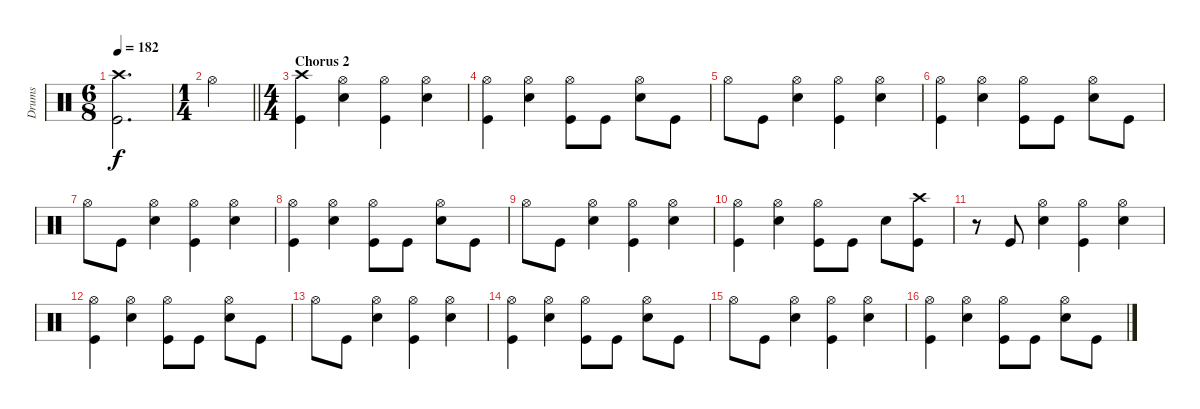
\track ("Drums" "Drums") {instrument percussion}
\staff {score}
\articulation defaults
\ts (6 8)
\tempo 182
\clef neutral
\ks c
("Crash high (hit)" "Kick (hit)").2{d dy f} |
\ts (1 4)
\barLineRight lightlight "Hi-Hat (open)".4
|
\ts (4 4)
\section ("" "Chorus 2")
("Crash high (hit)" "Kick (hit)").4 ("Hi-Hat (open)" "Electric Snare (hit)").4 ("Hi-Hat (open)" "Kick (hit)").4 ("Hi-Hat (open)" "Electric Snare (hit)").4 |
("Hi-Hat (open)" "Kick (hit)").4 ("Hi-Hat (open)" "Electric Snare (hit)").4 ("Hi-Hat (open)" "Kick (hit)").8 "Kick (hit)".8 ("Hi-Hat (open)" "Electric Snare (hit)").8 "Kick (hit)".8 |
"Hi-Hat (open)".8 "Kick (hit)".8 ("Hi-Hat (open)" "Electric Snare (hit)").4 ("Kick (hit)" "Hi-Hat (open)").4 ("Hi-Hat (open)" "Electric Snare (hit)").4 |
("Hi-Hat (open)" "Kick (hit)").4 ("Hi-Hat (open)" "Electric Snare (hit)").4 ("Hi-Hat (open)" "Kick (hit)").8 "Kick (hit)".8 ("Hi-Hat (open)" "Electric Snare (hit)").8 "Kick (hit)".8 |
"Hi-Hat (open)".8 "Kick (hit)".8 ("Hi-Hat (open)" "Electric Snare (hit)").4 ("Kick (hit)" "Hi-Hat (open)").4 ("Hi-Hat (open)" "Electric Snare (hit)").4 |
("Hi-Hat (open)" "Kick (hit)").4 ("Hi-Hat (open)" "Electric Snare (hit)").4 ("Hi-Hat (open)" "Kick (hit)").8 "Kick (hit)".8 ("Hi-Hat (open)" "Electric Snare (hit)").8 "Kick (hit)".8 |
"Hi-Hat (open)".8 "Kick (hit)".8 ("Hi-Hat (open)" "Electric Snare (hit)").4 ("Kick (hit)" "Hi-Hat (open)").4 ("Hi-Hat (open)" "Electric Snare (hit)").4 |
("Hi-Hat (open)" "Kick (hit)").4 ("Hi-Hat (open)" "Electric Snare (hit)").4 ("Hi-Hat (open)" "Kick (hit)").8 "Kick (hit)".8 "Electric Snare (hit)".8 ("Crash high (hit)" "Kick (hit)").8 |
r.8 "Kick (hit)".8 ("Hi-Hat (open)" "Electric Snare (hit)").4 ("Kick (hit)" "Hi-Hat (open)").4 ("Hi-Hat (open)" "Electric Snare (hit)").4 |
("Hi-Hat (open)" "Kick (hit)").4 ("Hi-Hat (open)" "Electric Snare (hit)").4 ("Hi-Hat (open)" "Kick (hit)").8 "Kick (hit)".8 ("Hi-Hat (open)" "Electric Snare (hit)").8 "Kick (hit)".8 |
"Hi-Hat (open)".8 "Kick (hit)".8 ("Hi-Hat (open)" "Electric Snare (hit)").4 ("Kick (hit)" "Hi-Hat (open)").4 ("Hi-Hat (open)" "Electric Snare (hit)").4 |
("Hi-Hat (open)" "Kick (hit)").4 ("Hi-Hat (open)" "Electric Snare (hit)").4 ("Hi-Hat (open)" "Kick (hit)").8 "Kick (hit)".8 ("Hi-Hat (open)" "Electric Snare (hit)").8 "Kick (hit)".8 |
"Hi-Hat (open)".8 "Kick (hit)".8 ("Hi-Hat (open)" "Electric Snare (hit)").4 ("Kick (hit)" "Hi-Hat (open)").4 ("Hi-Hat (open)" "Electric Snare (hit)").4 |
("Hi-Hat (open)" "Kick (hit)").4 ("Hi-Hat (open)" "Electric Snare (hit)").4 ("Hi-Hat (open)" "Kick (hit)").8 "Kick (hit)".8 ("Hi-Hat (open)" "Electric Snare (hit)").8 "Kick (hit)".8
